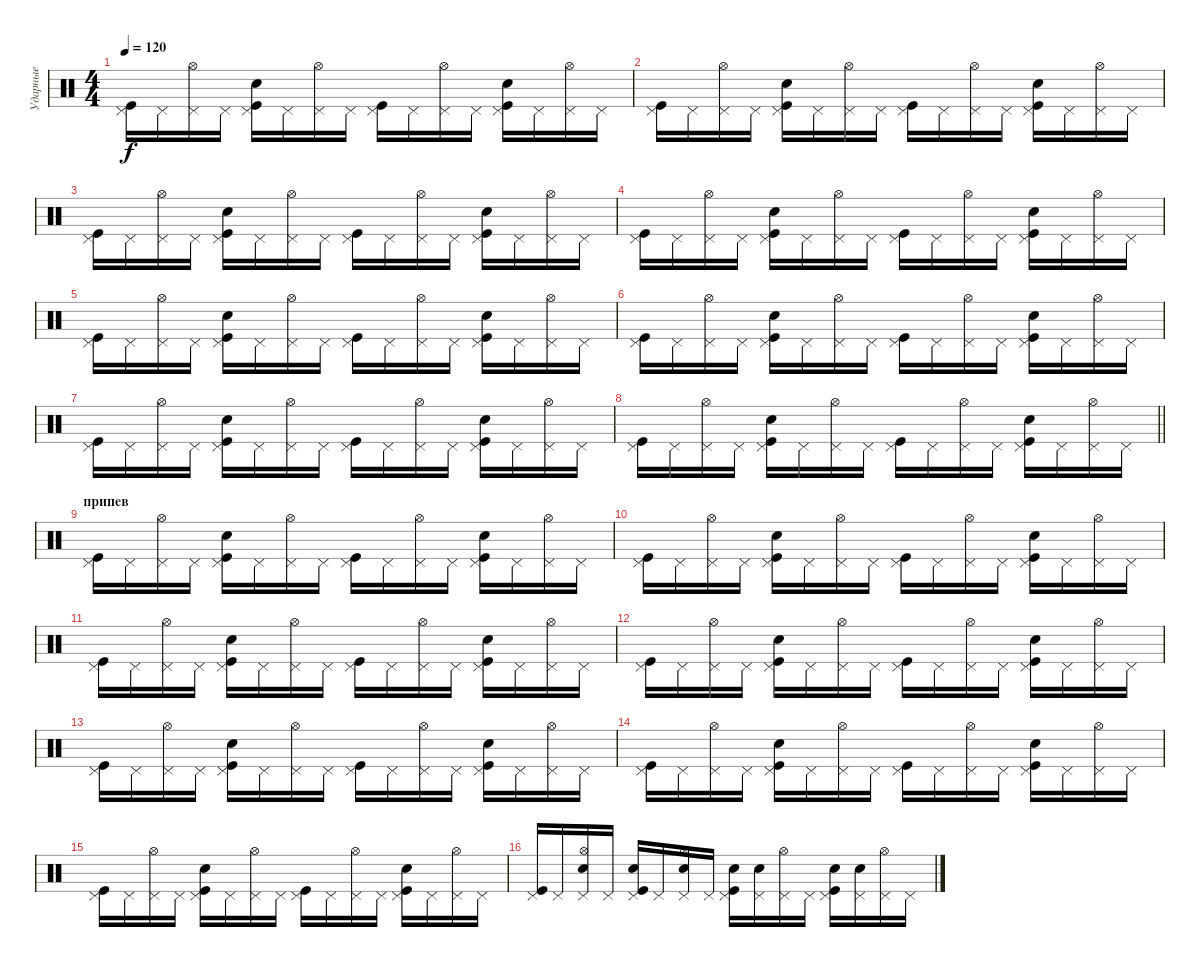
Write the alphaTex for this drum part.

\track ("Ударные" "Ударные") {instrument percussion}
\staff {score}
\articulation defaults
\ts (4 4)
\tempo 120
\clef neutral
\ks c
("Pedal Hi-Hat (hit)" "Kick (hit)").16{dy f} "Pedal Hi-Hat (hit)".16 ("Pedal Hi-Hat (hit)" "Hi-Hat (open)").16 "Pedal Hi-Hat (hit)".16 ("Pedal Hi-Hat (hit)" "Kick (hit)" "Snare (hit) 2").16 "Pedal Hi-Hat (hit)".16 ("Pedal Hi-Hat (hit)" "Hi-Hat (open)").16 "Pedal Hi-Hat (hit)".16 ("Pedal Hi-Hat (hit)" "Kick (hit)").16 "Pedal Hi-Hat (hit)".16 ("Pedal Hi-Hat (hit)" "Hi-Hat (open)").16 "Pedal Hi-Hat (hit)".16 ("Pedal Hi-Hat (hit)" "Kick (hit)" "Snare (hit) 2").16 "Pedal Hi-Hat (hit)".16 ("Pedal Hi-Hat (hit)" "Hi-Hat (open)").16 "Pedal Hi-Hat (hit)".16 |
("Pedal Hi-Hat (hit)" "Kick (hit)").16 "Pedal Hi-Hat (hit)".16 ("Pedal Hi-Hat (hit)" "Hi-Hat (open)").16 "Pedal Hi-Hat (hit)".16 ("Pedal Hi-Hat (hit)" "Kick (hit)" "Snare (hit) 2").16 "Pedal Hi-Hat (hit)".16 ("Pedal Hi-Hat (hit)" "Hi-Hat (open)").16 "Pedal Hi-Hat (hit)".16 ("Pedal Hi-Hat (hit)" "Kick (hit)").16 "Pedal Hi-Hat (hit)".16 ("Pedal Hi-Hat (hit)" "Hi-Hat (open)").16 "Pedal Hi-Hat (hit)".16 ("Pedal Hi-Hat (hit)" "Kick (hit)" "Snare (hit) 2").16 "Pedal Hi-Hat (hit)".16 ("Pedal Hi-Hat (hit)" "Hi-Hat (open)").16 "Pedal Hi-Hat (hit)".16 |
("Pedal Hi-Hat (hit)" "Kick (hit)").16 "Pedal Hi-Hat (hit)".16 ("Pedal Hi-Hat (hit)" "Hi-Hat (open)").16 "Pedal Hi-Hat (hit)".16 ("Pedal Hi-Hat (hit)" "Kick (hit)" "Snare (hit) 2").16 "Pedal Hi-Hat (hit)".16 ("Pedal Hi-Hat (hit)" "Hi-Hat (open)").16 "Pedal Hi-Hat (hit)".16 ("Pedal Hi-Hat (hit)" "Kick (hit)").16 "Pedal Hi-Hat (hit)".16 ("Pedal Hi-Hat (hit)" "Hi-Hat (open)").16 "Pedal Hi-Hat (hit)".16 ("Pedal Hi-Hat (hit)" "Kick (hit)" "Snare (hit) 2").16 "Pedal Hi-Hat (hit)".16 ("Pedal Hi-Hat (hit)" "Hi-Hat (open)").16 "Pedal Hi-Hat (hit)".16 |
("Pedal Hi-Hat (hit)" "Kick (hit)").16 "Pedal Hi-Hat (hit)".16 ("Pedal Hi-Hat (hit)" "Hi-Hat (open)").16 "Pedal Hi-Hat (hit)".16 ("Pedal Hi-Hat (hit)" "Kick (hit)" "Snare (hit) 2").16 "Pedal Hi-Hat (hit)".16 ("Pedal Hi-Hat (hit)" "Hi-Hat (open)").16 "Pedal Hi-Hat (hit)".16 ("Pedal Hi-Hat (hit)" "Kick (hit)").16 "Pedal Hi-Hat (hit)".16 ("Pedal Hi-Hat (hit)" "Hi-Hat (open)").16 "Pedal Hi-Hat (hit)".16 ("Pedal Hi-Hat (hit)" "Kick (hit)" "Snare (hit) 2").16 "Pedal Hi-Hat (hit)".16 ("Pedal Hi-Hat (hit)" "Hi-Hat (open)").16 "Pedal Hi-Hat (hit)".16 |
("Pedal Hi-Hat (hit)" "Kick (hit)").16 "Pedal Hi-Hat (hit)".16 ("Pedal Hi-Hat (hit)" "Hi-Hat (open)").16 "Pedal Hi-Hat (hit)".16 ("Pedal Hi-Hat (hit)" "Kick (hit)" "Snare (hit) 2").16 "Pedal Hi-Hat (hit)".16 ("Pedal Hi-Hat (hit)" "Hi-Hat (open)").16 "Pedal Hi-Hat (hit)".16 ("Pedal Hi-Hat (hit)" "Kick (hit)").16 "Pedal Hi-Hat (hit)".16 ("Pedal Hi-Hat (hit)" "Hi-Hat (open)").16 "Pedal Hi-Hat (hit)".16 ("Pedal Hi-Hat (hit)" "Kick (hit)" "Snare (hit) 2").16 "Pedal Hi-Hat (hit)".16 ("Pedal Hi-Hat (hit)" "Hi-Hat (open)").16 "Pedal Hi-Hat (hit)".16 |
("Pedal Hi-Hat (hit)" "Kick (hit)").16 "Pedal Hi-Hat (hit)".16 ("Pedal Hi-Hat (hit)" "Hi-Hat (open)").16 "Pedal Hi-Hat (hit)".16 ("Pedal Hi-Hat (hit)" "Kick (hit)" "Snare (hit) 2").16 "Pedal Hi-Hat (hit)".16 ("Pedal Hi-Hat (hit)" "Hi-Hat (open)").16 "Pedal Hi-Hat (hit)".16 ("Pedal Hi-Hat (hit)" "Kick (hit)").16 "Pedal Hi-Hat (hit)".16 ("Pedal Hi-Hat (hit)" "Hi-Hat (open)").16 "Pedal Hi-Hat (hit)".16 ("Pedal Hi-Hat (hit)" "Kick (hit)" "Snare (hit) 2").16 "Pedal Hi-Hat (hit)".16 ("Pedal Hi-Hat (hit)" "Hi-Hat (open)").16 "Pedal Hi-Hat (hit)".16 |
("Pedal Hi-Hat (hit)" "Kick (hit)").16 "Pedal Hi-Hat (hit)".16 ("Pedal Hi-Hat (hit)" "Hi-Hat (open)").16 "Pedal Hi-Hat (hit)".16 ("Pedal Hi-Hat (hit)" "Kick (hit)" "Snare (hit) 2").16 "Pedal Hi-Hat (hit)".16 ("Pedal Hi-Hat (hit)" "Hi-Hat (open)").16 "Pedal Hi-Hat (hit)".16 ("Pedal Hi-Hat (hit)" "Kick (hit)").16 "Pedal Hi-Hat (hit)".16 ("Pedal Hi-Hat (hit)" "Hi-Hat (open)").16 "Pedal Hi-Hat (hit)".16 ("Pedal Hi-Hat (hit)" "Kick (hit)" "Snare (hit) 2").16 "Pedal Hi-Hat (hit)".16 ("Pedal Hi-Hat (hit)" "Hi-Hat (open)").16 "Pedal Hi-Hat (hit)".16 |
\barLineRight lightlight
("Pedal Hi-Hat (hit)" "Kick (hit)").16 "Pedal Hi-Hat (hit)".16 ("Pedal Hi-Hat (hit)" "Hi-Hat (open)").16 "Pedal Hi-Hat (hit)".16 ("Pedal Hi-Hat (hit)" "Kick (hit)" "Snare (hit) 2").16 "Pedal Hi-Hat (hit)".16 ("Pedal Hi-Hat (hit)" "Hi-Hat (open)").16 "Pedal Hi-Hat (hit)".16 ("Pedal Hi-Hat (hit)" "Kick (hit)").16 "Pedal Hi-Hat (hit)".16 ("Pedal Hi-Hat (hit)" "Hi-Hat (open)").16 "Pedal Hi-Hat (hit)".16 ("Pedal Hi-Hat (hit)" "Kick (hit)" "Snare (hit) 2").16 "Pedal Hi-Hat (hit)".16 ("Pedal Hi-Hat (hit)" "Hi-Hat (open)").16 "Pedal Hi-Hat (hit)".16 |
\section ("" "припев")
("Pedal Hi-Hat (hit)" "Kick (hit)").16 "Pedal Hi-Hat (hit)".16 ("Pedal Hi-Hat (hit)" "Hi-Hat (open)").16 "Pedal Hi-Hat (hit)".16 ("Pedal Hi-Hat (hit)" "Kick (hit)" "Snare (hit) 2").16 "Pedal Hi-Hat (hit)".16 ("Pedal Hi-Hat (hit)" "Hi-Hat (open)").16 "Pedal Hi-Hat (hit)".16 ("Pedal Hi-Hat (hit)" "Kick (hit)").16 "Pedal Hi-Hat (hit)".16 ("Pedal Hi-Hat (hit)" "Hi-Hat (open)").16 "Pedal Hi-Hat (hit)".16 ("Pedal Hi-Hat (hit)" "Kick (hit)" "Snare (hit) 2").16 "Pedal Hi-Hat (hit)".16 ("Pedal Hi-Hat (hit)" "Hi-Hat (open)").16 "Pedal Hi-Hat (hit)".16 |
("Pedal Hi-Hat (hit)" "Kick (hit)").16 "Pedal Hi-Hat (hit)".16 ("Pedal Hi-Hat (hit)" "Hi-Hat (open)").16 "Pedal Hi-Hat (hit)".16 ("Pedal Hi-Hat (hit)" "Kick (hit)" "Snare (hit) 2").16 "Pedal Hi-Hat (hit)".16 ("Pedal Hi-Hat (hit)" "Hi-Hat (open)").16 "Pedal Hi-Hat (hit)".16 ("Pedal Hi-Hat (hit)" "Kick (hit)").16 "Pedal Hi-Hat (hit)".16 ("Pedal Hi-Hat (hit)" "Hi-Hat (open)").16 "Pedal Hi-Hat (hit)".16 ("Pedal Hi-Hat (hit)" "Kick (hit)" "Snare (hit) 2").16 "Pedal Hi-Hat (hit)".16 ("Pedal Hi-Hat (hit)" "Hi-Hat (open)").16 "Pedal Hi-Hat (hit)".16 |
("Pedal Hi-Hat (hit)" "Kick (hit)").16 "Pedal Hi-Hat (hit)".16 ("Pedal Hi-Hat (hit)" "Hi-Hat (open)").16 "Pedal Hi-Hat (hit)".16 ("Pedal Hi-Hat (hit)" "Kick (hit)" "Snare (hit) 2").16 "Pedal Hi-Hat (hit)".16 ("Pedal Hi-Hat (hit)" "Hi-Hat (open)").16 "Pedal Hi-Hat (hit)".16 ("Pedal Hi-Hat (hit)" "Kick (hit)").16 "Pedal Hi-Hat (hit)".16 ("Pedal Hi-Hat (hit)" "Hi-Hat (open)").16 "Pedal Hi-Hat (hit)".16 ("Pedal Hi-Hat (hit)" "Kick (hit)" "Snare (hit) 2").16 "Pedal Hi-Hat (hit)".16 ("Pedal Hi-Hat (hit)" "Hi-Hat (open)").16 "Pedal Hi-Hat (hit)".16 |
("Pedal Hi-Hat (hit)" "Kick (hit)").16 "Pedal Hi-Hat (hit)".16 ("Pedal Hi-Hat (hit)" "Hi-Hat (open)").16 "Pedal Hi-Hat (hit)".16 ("Pedal Hi-Hat (hit)" "Kick (hit)" "Snare (hit) 2").16 "Pedal Hi-Hat (hit)".16 ("Pedal Hi-Hat (hit)" "Hi-Hat (open)").16 "Pedal Hi-Hat (hit)".16 ("Pedal Hi-Hat (hit)" "Kick (hit)").16 "Pedal Hi-Hat (hit)".16 ("Pedal Hi-Hat (hit)" "Hi-Hat (open)").16 "Pedal Hi-Hat (hit)".16 ("Pedal Hi-Hat (hit)" "Kick (hit)" "Snare (hit) 2").16 "Pedal Hi-Hat (hit)".16 ("Pedal Hi-Hat (hit)" "Hi-Hat (open)").16 "Pedal Hi-Hat (hit)".16 |
("Pedal Hi-Hat (hit)" "Kick (hit)").16 "Pedal Hi-Hat (hit)".16 ("Pedal Hi-Hat (hit)" "Hi-Hat (open)").16 "Pedal Hi-Hat (hit)".16 ("Pedal Hi-Hat (hit)" "Kick (hit)" "Snare (hit) 2").16 "Pedal Hi-Hat (hit)".16 ("Pedal Hi-Hat (hit)" "Hi-Hat (open)").16 "Pedal Hi-Hat (hit)".16 ("Pedal Hi-Hat (hit)" "Kick (hit)").16 "Pedal Hi-Hat (hit)".16 ("Pedal Hi-Hat (hit)" "Hi-Hat (open)").16 "Pedal Hi-Hat (hit)".16 ("Pedal Hi-Hat (hit)" "Kick (hit)" "Snare (hit) 2").16 "Pedal Hi-Hat (hit)".16 ("Pedal Hi-Hat (hit)" "Hi-Hat (open)").16 "Pedal Hi-Hat (hit)".16 |
("Pedal Hi-Hat (hit)" "Kick (hit)").16 "Pedal Hi-Hat (hit)".16 ("Pedal Hi-Hat (hit)" "Hi-Hat (open)").16 "Pedal Hi-Hat (hit)".16 ("Pedal Hi-Hat (hit)" "Kick (hit)" "Snare (hit) 2").16 "Pedal Hi-Hat (hit)".16 ("Pedal Hi-Hat (hit)" "Hi-Hat (open)").16 "Pedal Hi-Hat (hit)".16 ("Pedal Hi-Hat (hit)" "Kick (hit)").16 "Pedal Hi-Hat (hit)".16 ("Pedal Hi-Hat (hit)" "Hi-Hat (open)").16 "Pedal Hi-Hat (hit)".16 ("Pedal Hi-Hat (hit)" "Kick (hit)" "Snare (hit) 2").16 "Pedal Hi-Hat (hit)".16 ("Pedal Hi-Hat (hit)" "Hi-Hat (open)").16 "Pedal Hi-Hat (hit)".16 |
("Pedal Hi-Hat (hit)" "Kick (hit)").16 "Pedal Hi-Hat (hit)".16 ("Pedal Hi-Hat (hit)" "Hi-Hat (open)").16 "Pedal Hi-Hat (hit)".16 ("Pedal Hi-Hat (hit)" "Kick (hit)" "Snare (hit) 2").16 "Pedal Hi-Hat (hit)".16 ("Pedal Hi-Hat (hit)" "Hi-Hat (open)").16 "Pedal Hi-Hat (hit)".16 ("Pedal Hi-Hat (hit)" "Kick (hit)").16 "Pedal Hi-Hat (hit)".16 ("Pedal Hi-Hat (hit)" "Hi-Hat (open)").16 "Pedal Hi-Hat (hit)".16 ("Pedal Hi-Hat (hit)" "Kick (hit)" "Snare (hit) 2").16 "Pedal Hi-Hat (hit)".16 ("Pedal Hi-Hat (hit)" "Hi-Hat (open)").16 "Pedal Hi-Hat (hit)".16 |
("Pedal Hi-Hat (hit)" "Kick (hit)").16 "Pedal Hi-Hat (hit)".16 ("Pedal Hi-Hat (hit)" "Hi-Hat (open)" "Snare (hit) 2").16 "Pedal Hi-Hat (hit)".16 ("Pedal Hi-Hat (hit)" "Kick (hit)" "Snare (hit) 2").16 "Pedal Hi-Hat (hit)".16 ("Pedal Hi-Hat (hit)" "Hi-Hat (open)" "Snare (hit) 2").16 "Pedal Hi-Hat (hit)".16 ("Pedal Hi-Hat (hit)" "Kick (hit)" "Snare (hit) 2").16 ("Pedal Hi-Hat (hit)" "Snare (hit) 2").16 ("Pedal Hi-Hat (hit)" "Hi-Hat (open)").16 "Pedal Hi-Hat (hit)".16 ("Pedal Hi-Hat (hit)" "Kick (hit)" "Snare (hit) 2").16 ("Pedal Hi-Hat (hit)" "Snare (hit) 2").16 ("Pedal Hi-Hat (hit)" "Hi-Hat (open)").16 "Pedal Hi-Hat (hit)".16
